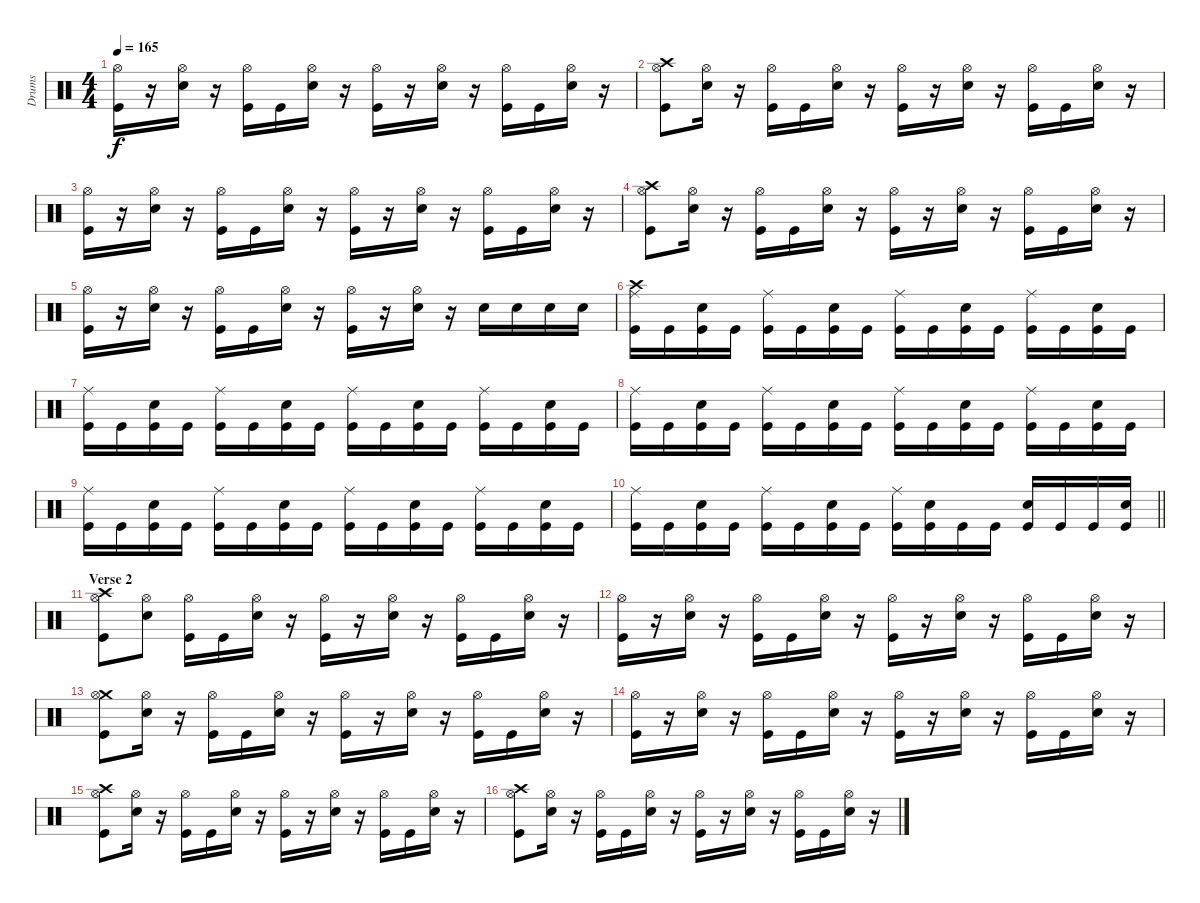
\track ("Drums" "Drums") {instrument percussion}
\staff {score}
\articulation defaults
\ts (4 4)
\tempo 165
\clef neutral
\ks c
("Hi-Hat (open)" "Kick (hit)").16{dy f} r.16 ("Electric Snare (hit)" "Hi-Hat (open)").16 r.16 ("Kick (hit)" "Hi-Hat (open)").16 "Kick (hit)".16 ("Electric Snare (hit)" "Hi-Hat (open)").16 r.16 ("Kick (hit)" "Hi-Hat (open)").16 r.16 ("Electric Snare (hit)" "Hi-Hat (open)").16 r.16 ("Kick (hit)" "Hi-Hat (open)").16 "Kick (hit)".16 ("Electric Snare (hit)" "Hi-Hat (open)").16 r.16 |
("Crash high (hit)" "Hi-Hat (open)" "Kick (hit)").8 ("Electric Snare (hit)" "Hi-Hat (open)").16 r.16 ("Kick (hit)" "Hi-Hat (open)").16 "Kick (hit)".16 ("Electric Snare (hit)" "Hi-Hat (open)").16 r.16 ("Kick (hit)" "Hi-Hat (open)").16 r.16 ("Electric Snare (hit)" "Hi-Hat (open)").16 r.16 ("Kick (hit)" "Hi-Hat (open)").16 "Kick (hit)".16 ("Electric Snare (hit)" "Hi-Hat (open)").16 r.16 |
("Hi-Hat (open)" "Kick (hit)").16 r.16 ("Electric Snare (hit)" "Hi-Hat (open)").16 r.16 ("Kick (hit)" "Hi-Hat (open)").16 "Kick (hit)".16 ("Electric Snare (hit)" "Hi-Hat (open)").16 r.16 ("Kick (hit)" "Hi-Hat (open)").16 r.16 ("Electric Snare (hit)" "Hi-Hat (open)").16 r.16 ("Kick (hit)" "Hi-Hat (open)").16 "Kick (hit)".16 ("Electric Snare (hit)" "Hi-Hat (open)").16 r.16 |
("Crash high (hit)" "Hi-Hat (open)" "Kick (hit)").8 ("Electric Snare (hit)" "Hi-Hat (open)").16 r.16 ("Kick (hit)" "Hi-Hat (open)").16 "Kick (hit)".16 ("Electric Snare (hit)" "Hi-Hat (open)").16 r.16 ("Kick (hit)" "Hi-Hat (open)").16 r.16 ("Electric Snare (hit)" "Hi-Hat (open)").16 r.16 ("Kick (hit)" "Hi-Hat (open)").16 "Kick (hit)".16 ("Electric Snare (hit)" "Hi-Hat (open)").16 r.16 |
("Hi-Hat (open)" "Kick (hit)").16 r.16 ("Electric Snare (hit)" "Hi-Hat (open)").16 r.16 ("Kick (hit)" "Hi-Hat (open)").16 "Kick (hit)".16 ("Electric Snare (hit)" "Hi-Hat (open)").16 r.16 ("Kick (hit)" "Hi-Hat (open)").16 r.16 ("Hi-Hat (open)" "Electric Snare (hit)").16 r.16 "Electric Snare (hit)".16 "Electric Snare (hit)".16 "Electric Snare (hit)".16 "Electric Snare (hit)".16 |
("Crash high (hit)" "Ride (middle)" "Kick (hit)").16 "Kick (hit)".16 ("Electric Snare (hit)" "Kick (hit)").16 "Kick (hit)".16 ("Ride (middle)" "Kick (hit)").16 "Kick (hit)".16 ("Electric Snare (hit)" "Kick (hit)").16 "Kick (hit)".16 ("Ride (middle)" "Kick (hit)").16 "Kick (hit)".16 ("Electric Snare (hit)" "Kick (hit)").16 "Kick (hit)".16 ("Ride (middle)" "Kick (hit)").16 "Kick (hit)".16 ("Electric Snare (hit)" "Kick (hit)").16 "Kick (hit)".16 |
("Ride (middle)" "Kick (hit)").16{volume 14 balance 8} "Kick (hit)".16 ("Electric Snare (hit)" "Kick (hit)").16 "Kick (hit)".16 ("Ride (middle)" "Kick (hit)").16 "Kick (hit)".16 ("Electric Snare (hit)" "Kick (hit)").16 "Kick (hit)".16 ("Ride (middle)" "Kick (hit)").16 "Kick (hit)".16 ("Electric Snare (hit)" "Kick (hit)").16 "Kick (hit)".16 ("Ride (middle)" "Kick (hit)").16 "Kick (hit)".16 ("Electric Snare (hit)" "Kick (hit)").16 "Kick (hit)".16 |
("Ride (middle)" "Kick (hit)").16 "Kick (hit)".16 ("Electric Snare (hit)" "Kick (hit)").16 "Kick (hit)".16 ("Ride (middle)" "Kick (hit)").16 "Kick (hit)".16 ("Electric Snare (hit)" "Kick (hit)").16 "Kick (hit)".16 ("Ride (middle)" "Kick (hit)").16 "Kick (hit)".16 ("Electric Snare (hit)" "Kick (hit)").16 "Kick (hit)".16 ("Ride (middle)" "Kick (hit)").16 "Kick (hit)".16 ("Electric Snare (hit)" "Kick (hit)").16 "Kick (hit)".16 |
("Ride (middle)" "Kick (hit)").16 "Kick (hit)".16 ("Electric Snare (hit)" "Kick (hit)").16 "Kick (hit)".16 ("Ride (middle)" "Kick (hit)").16 "Kick (hit)".16 ("Electric Snare (hit)" "Kick (hit)").16 "Kick (hit)".16 ("Ride (middle)" "Kick (hit)").16 "Kick (hit)".16 ("Electric Snare (hit)" "Kick (hit)").16 "Kick (hit)".16 ("Ride (middle)" "Kick (hit)").16 "Kick (hit)".16 ("Electric Snare (hit)" "Kick (hit)").16 "Kick (hit)".16 |
\barLineRight lightlight
("Ride (middle)" "Kick (hit)").16 "Kick (hit)".16 ("Electric Snare (hit)" "Kick (hit)").16 "Kick (hit)".16 ("Ride (middle)" "Kick (hit)").16 "Kick (hit)".16 ("Electric Snare (hit)" "Kick (hit)").16 "Kick (hit)".16 ("Ride (middle)" "Kick (hit)").16 ("Electric Snare (hit)" "Kick (hit)").16 "Kick (hit)".16 "Kick (hit)".16 ("Electric Snare (hit)" "Kick (hit)").16 "Kick (hit)".16 "Kick (hit)".16 ("Electric Snare (hit)" "Kick (hit)").16 |
\section ("" "Verse 2")
("Crash high (hit)" "Hi-Hat (open)" "Kick (hit)").8 ("Electric Snare (hit)" "Hi-Hat (open)").8 ("Kick (hit)" "Hi-Hat (open)").16 "Kick (hit)".16 ("Electric Snare (hit)" "Hi-Hat (open)").16 r.16 ("Kick (hit)" "Hi-Hat (open)").16 r.16 ("Electric Snare (hit)" "Hi-Hat (open)").16 r.16 ("Kick (hit)" "Hi-Hat (open)").16 "Kick (hit)".16 ("Electric Snare (hit)" "Hi-Hat (open)").16 r.16 |
("Hi-Hat (open)" "Kick (hit)").16 r.16 ("Electric Snare (hit)" "Hi-Hat (open)").16 r.16 ("Kick (hit)" "Hi-Hat (open)").16 "Kick (hit)".16 ("Electric Snare (hit)" "Hi-Hat (open)").16 r.16 ("Kick (hit)" "Hi-Hat (open)").16 r.16 ("Electric Snare (hit)" "Hi-Hat (open)").16 r.16 ("Kick (hit)" "Hi-Hat (open)").16 "Kick (hit)".16 ("Electric Snare (hit)" "Hi-Hat (open)").16 r.16 |
("Crash medium (hit)" "Hi-Hat (open)" "Kick (hit)").8 ("Electric Snare (hit)" "Hi-Hat (open)").16 r.16 ("Kick (hit)" "Hi-Hat (open)").16 "Kick (hit)".16 ("Electric Snare (hit)" "Hi-Hat (open)").16 r.16 ("Kick (hit)" "Hi-Hat (open)").16 r.16 ("Electric Snare (hit)" "Hi-Hat (open)").16 r.16 ("Kick (hit)" "Hi-Hat (open)").16 "Kick (hit)".16 ("Electric Snare (hit)" "Hi-Hat (open)").16 r.16 |
("Hi-Hat (open)" "Kick (hit)").16 r.16 ("Electric Snare (hit)" "Hi-Hat (open)").16 r.16 ("Kick (hit)" "Hi-Hat (open)").16 "Kick (hit)".16 ("Electric Snare (hit)" "Hi-Hat (open)").16 r.16 ("Kick (hit)" "Hi-Hat (open)").16 r.16 ("Electric Snare (hit)" "Hi-Hat (open)").16 r.16 ("Kick (hit)" "Hi-Hat (open)").16 "Kick (hit)".16 ("Electric Snare (hit)" "Hi-Hat (open)").16 r.16 |
("Crash high (hit)" "Hi-Hat (open)" "Kick (hit)").8 ("Electric Snare (hit)" "Hi-Hat (open)").16 r.16 ("Kick (hit)" "Hi-Hat (open)").16 "Kick (hit)".16 ("Electric Snare (hit)" "Hi-Hat (open)").16 r.16 ("Kick (hit)" "Hi-Hat (open)").16 r.16 ("Electric Snare (hit)" "Hi-Hat (open)").16 r.16 ("Kick (hit)" "Hi-Hat (open)").16 "Kick (hit)".16 ("Electric Snare (hit)" "Hi-Hat (open)").16 r.16 |
("Crash high (hit)" "Hi-Hat (open)" "Kick (hit)").8 ("Electric Snare (hit)" "Hi-Hat (open)").16 r.16 ("Kick (hit)" "Hi-Hat (open)").16 "Kick (hit)".16 ("Electric Snare (hit)" "Hi-Hat (open)").16 r.16 ("Kick (hit)" "Hi-Hat (open)").16 r.16 ("Electric Snare (hit)" "Hi-Hat (open)").16 r.16 ("Kick (hit)" "Hi-Hat (open)").16 "Kick (hit)".16 ("Electric Snare (hit)" "Hi-Hat (open)").16 r.16
